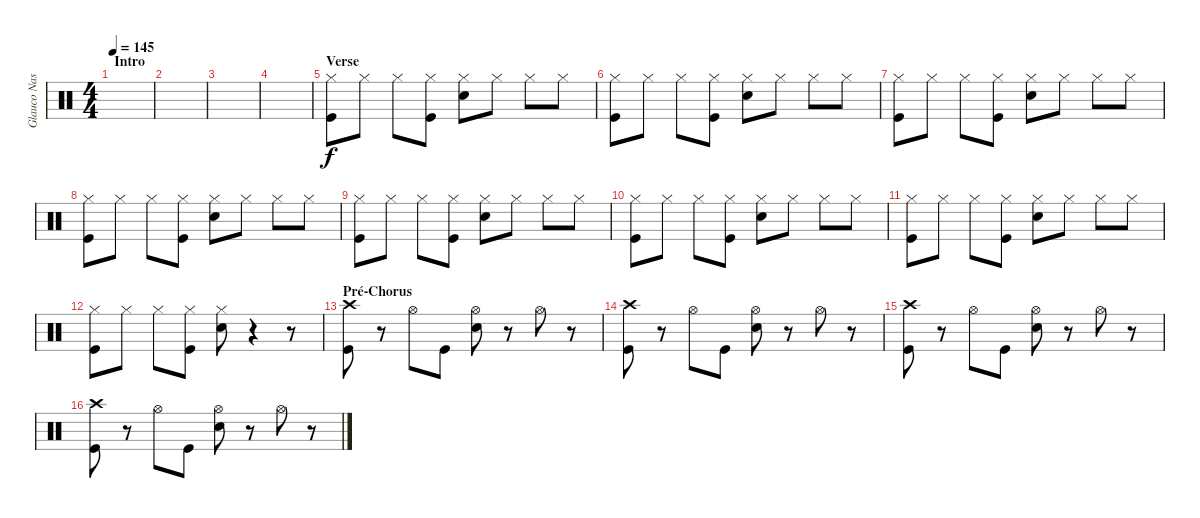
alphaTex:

\track ("Glauco Nastácia" "Glauco Nas") {instrument percussion}
\staff {score}
\articulation defaults
\ts (4 4)
\section ("" "Intro")
\tempo 145
\clef neutral
\ks c
|
|
|
|
\section ("" "Verse")
("Hi-Hat (closed)" "Kick (hit)").8 "Hi-Hat (closed)".8 "Hi-Hat (closed)".8 ("Hi-Hat (closed)" "Kick (hit)").8 ("Hi-Hat (closed)" "Electric Snare (hit)").8 "Hi-Hat (closed)".8 "Hi-Hat (closed)".8 "Hi-Hat (closed)".8 |
("Hi-Hat (closed)" "Kick (hit)").8 "Hi-Hat (closed)".8 "Hi-Hat (closed)".8 ("Hi-Hat (closed)" "Kick (hit)").8 ("Hi-Hat (closed)" "Electric Snare (hit)").8 "Hi-Hat (closed)".8 "Hi-Hat (closed)".8 "Hi-Hat (closed)".8 |
("Hi-Hat (closed)" "Kick (hit)").8 "Hi-Hat (closed)".8 "Hi-Hat (closed)".8 ("Hi-Hat (closed)" "Kick (hit)").8 ("Hi-Hat (closed)" "Electric Snare (hit)").8 "Hi-Hat (closed)".8 "Hi-Hat (closed)".8 "Hi-Hat (closed)".8 |
("Hi-Hat (closed)" "Kick (hit)").8 "Hi-Hat (closed)".8 "Hi-Hat (closed)".8 ("Hi-Hat (closed)" "Kick (hit)").8 ("Hi-Hat (closed)" "Electric Snare (hit)").8 "Hi-Hat (closed)".8 "Hi-Hat (closed)".8 "Hi-Hat (closed)".8 |
("Hi-Hat (closed)" "Kick (hit)").8 "Hi-Hat (closed)".8 "Hi-Hat (closed)".8 ("Hi-Hat (closed)" "Kick (hit)").8 ("Hi-Hat (closed)" "Electric Snare (hit)").8 "Hi-Hat (closed)".8 "Hi-Hat (closed)".8 "Hi-Hat (closed)".8 |
("Hi-Hat (closed)" "Kick (hit)").8 "Hi-Hat (closed)".8 "Hi-Hat (closed)".8 ("Hi-Hat (closed)" "Kick (hit)").8 ("Hi-Hat (closed)" "Electric Snare (hit)").8 "Hi-Hat (closed)".8 "Hi-Hat (closed)".8 "Hi-Hat (closed)".8 |
("Hi-Hat (closed)" "Kick (hit)").8 "Hi-Hat (closed)".8 "Hi-Hat (closed)".8 ("Hi-Hat (closed)" "Kick (hit)").8 ("Hi-Hat (closed)" "Electric Snare (hit)").8 "Hi-Hat (closed)".8 "Hi-Hat (closed)".8 "Hi-Hat (closed)".8 |
("Hi-Hat (closed)" "Kick (hit)").8 "Hi-Hat (closed)".8 "Hi-Hat (closed)".8 ("Hi-Hat (closed)" "Kick (hit)").8 ("Hi-Hat (closed)" "Electric Snare (hit)").8 r.4 r.8 |
\section ("" "Pré-Chorus")
("Crash high (hit)" "Kick (hit)").8 r.8 "Hi-Hat (open)".8 "Kick (hit)".8 ("Hi-Hat (open)" "Electric Snare (hit)").8 r.8 "Hi-Hat (open)".8 r.8 |
("Crash high (hit)" "Kick (hit)").8 r.8 "Hi-Hat (open)".8 "Kick (hit)".8 ("Hi-Hat (open)" "Electric Snare (hit)").8 r.8 "Hi-Hat (open)".8 r.8 |
("Crash high (hit)" "Kick (hit)").8 r.8 "Hi-Hat (open)".8 "Kick (hit)".8 ("Hi-Hat (open)" "Electric Snare (hit)").8 r.8 "Hi-Hat (open)".8 r.8 |
("Crash high (hit)" "Kick (hit)").8 r.8 "Hi-Hat (open)".8 "Kick (hit)".8 ("Hi-Hat (open)" "Electric Snare (hit)").8 r.8 "Hi-Hat (open)".8 r.8
